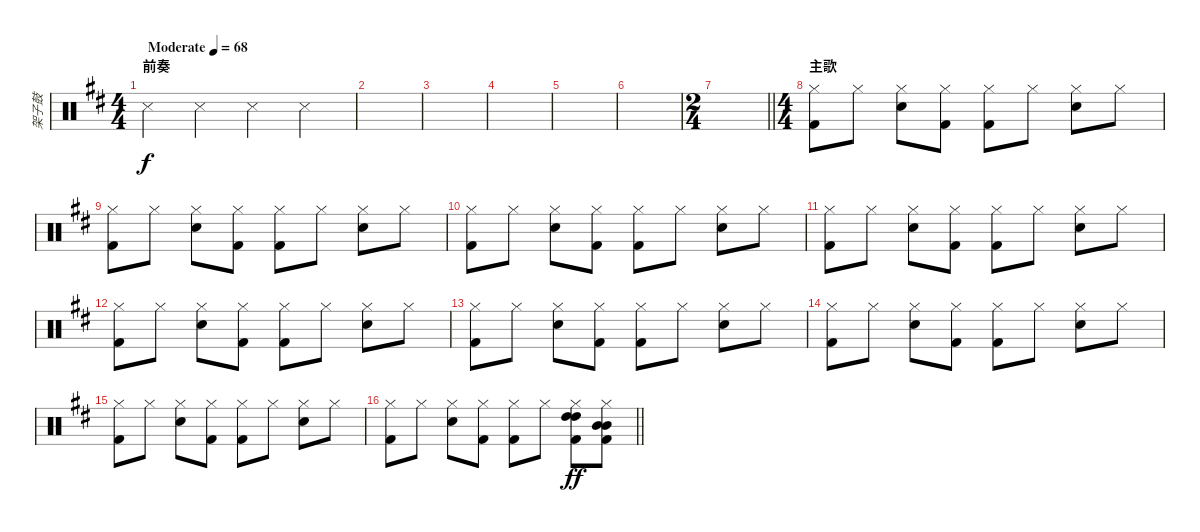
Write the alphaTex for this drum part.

\track ("架子鼓" "架子鼓") {instrument percussion}
\staff {score}
\articulation defaults
\ts (4 4)
\section ("" "前奏")
\tempo (68 "Moderate")
\clef neutral
\ks d "Snare (side stick) 3".4{dy f} "Snare (side stick) 3".4 "Snare (side stick) 3".4 "Snare (side stick) 3".4
|
|
|
|
|
|
\ts (2 4)
\barLineRight lightlight
|
\ts (4 4)
\section ("" "主歌")
("Hi-Hat (closed)" "Kick (hit) 2").8 "Hi-Hat (closed)".8 ("Hi-Hat (closed)" "Electric Snare (hit)").8 ("Hi-Hat (closed)" "Kick (hit) 2").8 ("Hi-Hat (closed)" "Kick (hit) 2").8 "Hi-Hat (closed)".8 ("Hi-Hat (closed)" "Electric Snare (hit)").8 "Hi-Hat (closed)".8 |
("Hi-Hat (closed)" "Kick (hit) 2").8 "Hi-Hat (closed)".8 ("Hi-Hat (closed)" "Electric Snare (hit)").8 ("Hi-Hat (closed)" "Kick (hit) 2").8 ("Hi-Hat (closed)" "Kick (hit) 2").8 "Hi-Hat (closed)".8 ("Hi-Hat (closed)" "Electric Snare (hit)").8 "Hi-Hat (closed)".8 |
("Hi-Hat (closed)" "Kick (hit) 2").8 "Hi-Hat (closed)".8 ("Hi-Hat (closed)" "Electric Snare (hit)").8 ("Hi-Hat (closed)" "Kick (hit) 2").8 ("Hi-Hat (closed)" "Kick (hit) 2").8 "Hi-Hat (closed)".8 ("Hi-Hat (closed)" "Electric Snare (hit)").8 "Hi-Hat (closed)".8 |
("Hi-Hat (closed)" "Kick (hit) 2").8 "Hi-Hat (closed)".8 ("Hi-Hat (closed)" "Electric Snare (hit)").8 ("Hi-Hat (closed)" "Kick (hit) 2").8 ("Hi-Hat (closed)" "Kick (hit) 2").8 "Hi-Hat (closed)".8 ("Hi-Hat (closed)" "Electric Snare (hit)").8 "Hi-Hat (closed)".8 |
("Hi-Hat (closed)" "Kick (hit) 2").8 "Hi-Hat (closed)".8 ("Hi-Hat (closed)" "Electric Snare (hit)").8 ("Hi-Hat (closed)" "Kick (hit) 2").8 ("Hi-Hat (closed)" "Kick (hit) 2").8 "Hi-Hat (closed)".8 ("Hi-Hat (closed)" "Electric Snare (hit)").8 "Hi-Hat (closed)".8 |
("Hi-Hat (closed)" "Kick (hit) 2").8 "Hi-Hat (closed)".8 ("Hi-Hat (closed)" "Electric Snare (hit)").8 ("Hi-Hat (closed)" "Kick (hit) 2").8 ("Hi-Hat (closed)" "Kick (hit) 2").8 "Hi-Hat (closed)".8 ("Hi-Hat (closed)" "Electric Snare (hit)").8 "Hi-Hat (closed)".8 |
("Hi-Hat (closed)" "Kick (hit) 2").8 "Hi-Hat (closed)".8 ("Hi-Hat (closed)" "Electric Snare (hit)").8 ("Hi-Hat (closed)" "Kick (hit) 2").8 ("Hi-Hat (closed)" "Kick (hit) 2").8 "Hi-Hat (closed)".8 ("Hi-Hat (closed)" "Electric Snare (hit)").8 "Hi-Hat (closed)".8 |
("Hi-Hat (closed)" "Kick (hit) 2").8 "Hi-Hat (closed)".8 ("Hi-Hat (closed)" "Electric Snare (hit)").8 ("Hi-Hat (closed)" "Kick (hit) 2").8 ("Hi-Hat (closed)" "Kick (hit) 2").8 "Hi-Hat (closed)".8 ("Hi-Hat (closed)" "Electric Snare (hit)").8 "Hi-Hat (closed)".8 |
\barLineRight lightlight
("Hi-Hat (closed)" "Kick (hit) 2").8 "Hi-Hat (closed)".8 ("Hi-Hat (closed)" "Electric Snare (hit)").8 ("Hi-Hat (closed)" "Kick (hit) 2").8 ("Hi-Hat (closed)" "Kick (hit) 2").8 "Hi-Hat (closed)".8 ("Hi-Hat (closed)" "High Tom (hit)" "High Tom (hit)" "Kick (hit) 2").8{dy ff} ("Hi-Hat (closed)" "Mid Tom (hit)" "Mid Tom (hit)" "Kick (hit) 2").8
